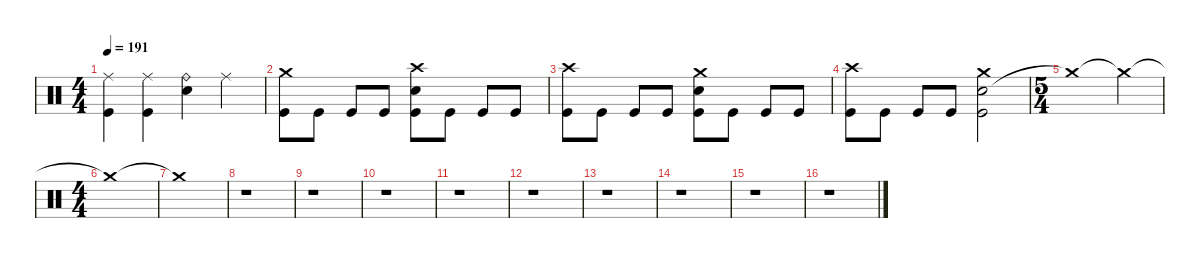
\defaultSystemsLayout 4
\hideDynamics
\bracketExtendMode nobrackets
\singleTrackTrackNamePolicy hidden
\multiTrackTrackNamePolicy hidden
\firstSystemTrackNameMode fullname
\firstSystemTrackNameOrientation horizontal
\otherSystemsTrackNameOrientation horizontal
\track ("Drumkit" "drm.") {instrument percussion}
\staff {score}
\articulation defaults
\ts (4 4)
\tempo 191
\clef neutral
\ks c
("Ride (middle)" "Kick (hit)").4{dy f beam Down} ("Ride (middle)" "Kick (hit)").4{beam Down} ("Ride (bell)" "Snare (hit) 2").4{beam Down} "Ride (middle)".4{beam Down} |
("Kick (hit)" "Crash medium (hit)").8{beam Down} "Kick (hit)".8{beam Down} "Kick (hit)".8{beam Up} "Kick (hit)".8{beam Up} ("Snare (hit) 2" "Kick (hit)" "Crash high (hit)").8{beam Down} "Kick (hit)".8{beam Down} "Kick (hit)".8{beam Up} "Kick (hit)".8{beam Up} |
("Kick (hit)" "Crash high (hit)").8{beam Down} "Kick (hit)".8{beam Down} "Kick (hit)".8{beam Up} "Kick (hit)".8{beam Up} ("Snare (hit) 2" "Kick (hit)" "Crash medium (hit)").8{beam Down} "Kick (hit)".8{beam Down} "Kick (hit)".8{beam Up} "Kick (hit)".8{beam Up} |
("Kick (hit)" "Crash high (hit)").8{beam Down} "Kick (hit)".8{beam Down} "Kick (hit)".8{beam Up} "Kick (hit)".8{beam Up} ("Snare (hit) 2" "Kick (hit)" "Crash medium (hit)").2{beam Down} |
\ts (5 4)
\beaming (8 6 4)
"Crash medium (hit)"{t}.1{beam Down} "Crash medium (hit)"{t}.4{beam Down} |
\ts (4 4)
\beaming (8 2 2 2 2)
"Crash medium (hit)"{t}.1{beam Down} |
"Crash medium (hit)"{t}.1{beam Down} |
r.1{beam Down} |
r.1{beam Down} |
r.1{beam Down} |
r.1{beam Down} |
r.1{beam Down} |
r.1{beam Down} |
r.1{beam Down} |
r.1{beam Down} |
r.1{beam Down}
